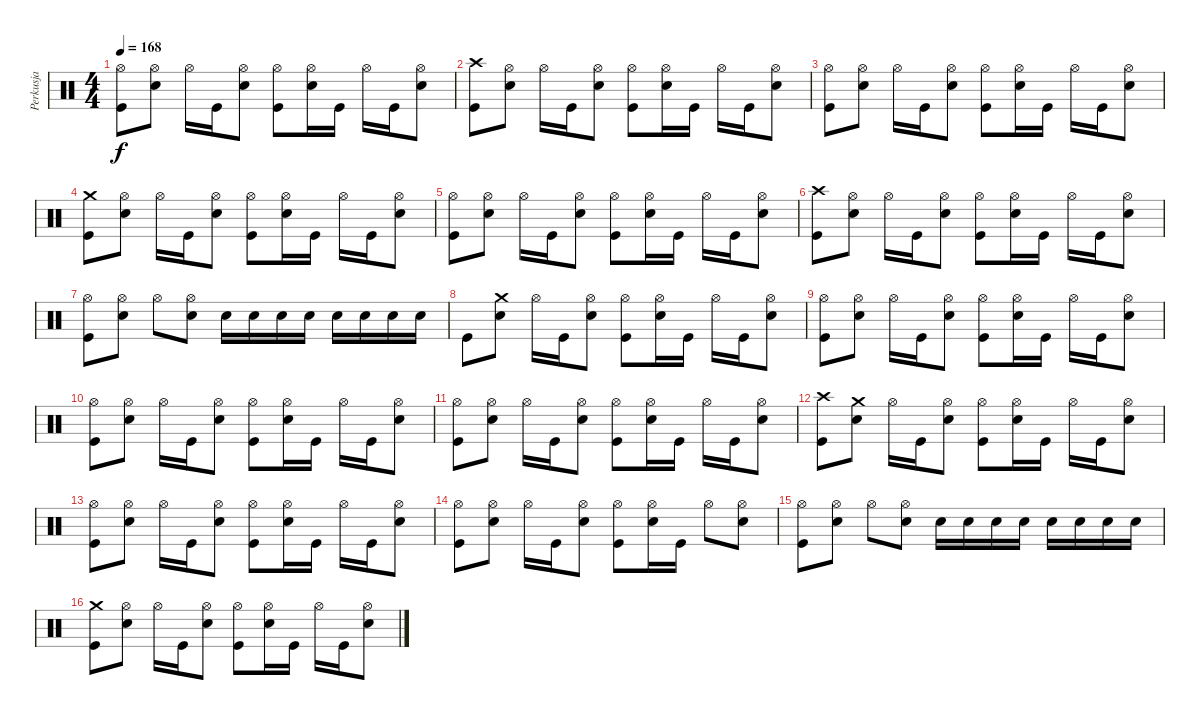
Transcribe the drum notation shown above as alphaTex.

\track ("Perkusja" "Perkusja") {instrument percussion}
\staff {score}
\articulation defaults
\ts (4 4)
\tempo 168
\clef neutral
\ks c
("Kick (hit)" "Hi-Hat (open)").8{dy f} ("Hi-Hat (open)" "Snare (hit) 2").8 "Hi-Hat (open)".16 "Kick (hit)".16 ("Hi-Hat (open)" "Snare (hit) 2").8 ("Kick (hit)" "Hi-Hat (open)").8 ("Hi-Hat (open)" "Snare (hit) 2").16 "Kick (hit)".16 "Hi-Hat (open)".16 "Kick (hit)".16 ("Hi-Hat (open)" "Snare (hit) 2").8 |
("Kick (hit)" "Crash high (hit)").8 ("Hi-Hat (open)" "Snare (hit) 2").8 "Hi-Hat (open)".16 "Kick (hit)".16 ("Hi-Hat (open)" "Snare (hit) 2").8 ("Kick (hit)" "Hi-Hat (open)").8 ("Hi-Hat (open)" "Snare (hit) 2").16 "Kick (hit)".16 "Hi-Hat (open)".16 "Kick (hit)".16 ("Hi-Hat (open)" "Snare (hit) 2").8 |
("Kick (hit)" "Hi-Hat (open)").8 ("Hi-Hat (open)" "Snare (hit) 2").8 "Hi-Hat (open)".16 "Kick (hit)".16 ("Hi-Hat (open)" "Snare (hit) 2").8 ("Kick (hit)" "Hi-Hat (open)").8 ("Hi-Hat (open)" "Snare (hit) 2").16 "Kick (hit)".16 "Hi-Hat (open)".16 "Kick (hit)".16 ("Hi-Hat (open)" "Snare (hit) 2").8 |
("Kick (hit)" "Crash medium (hit)").8 ("Hi-Hat (open)" "Snare (hit) 2").8 "Hi-Hat (open)".16 "Kick (hit)".16 ("Hi-Hat (open)" "Snare (hit) 2").8 ("Kick (hit)" "Hi-Hat (open)").8 ("Hi-Hat (open)" "Snare (hit) 2").16 "Kick (hit)".16 "Hi-Hat (open)".16 "Kick (hit)".16 ("Hi-Hat (open)" "Snare (hit) 2").8 |
("Kick (hit)" "Hi-Hat (open)").8 ("Hi-Hat (open)" "Snare (hit) 2").8 "Hi-Hat (open)".16 "Kick (hit)".16 ("Hi-Hat (open)" "Snare (hit) 2").8 ("Kick (hit)" "Hi-Hat (open)").8 ("Hi-Hat (open)" "Snare (hit) 2").16 "Kick (hit)".16 "Hi-Hat (open)".16 "Kick (hit)".16 ("Hi-Hat (open)" "Snare (hit) 2").8 |
("Kick (hit)" "Crash high (hit)").8 ("Hi-Hat (open)" "Snare (hit) 2").8 "Hi-Hat (open)".16 "Kick (hit)".16 ("Hi-Hat (open)" "Snare (hit) 2").8 ("Kick (hit)" "Hi-Hat (open)").8 ("Hi-Hat (open)" "Snare (hit) 2").16 "Kick (hit)".16 "Hi-Hat (open)".16 "Kick (hit)".16 ("Hi-Hat (open)" "Snare (hit) 2").8 |
("Kick (hit)" "Hi-Hat (open)").8 ("Hi-Hat (open)" "Snare (hit) 2").8 "Hi-Hat (open)".8 ("Hi-Hat (open)" "Snare (hit) 2").8 "Snare (hit) 2".16 "Snare (hit) 2".16 "Snare (hit) 2".16 "Snare (hit) 2".16 "Snare (hit) 2".16 "Snare (hit) 2".16 "Snare (hit) 2".16 "Snare (hit) 2".16 |
"Kick (hit)".8 ("Crash medium (hit)" "Snare (hit) 2").8 "Hi-Hat (open)".16 "Kick (hit)".16 ("Hi-Hat (open)" "Snare (hit) 2").8 ("Kick (hit)" "Hi-Hat (open)").8 ("Hi-Hat (open)" "Snare (hit) 2").16 "Kick (hit)".16 "Hi-Hat (open)".16 "Kick (hit)".16 ("Hi-Hat (open)" "Snare (hit) 2").8 |
("Kick (hit)" "Hi-Hat (open)").8 ("Hi-Hat (open)" "Snare (hit) 2").8 "Hi-Hat (open)".16 "Kick (hit)".16 ("Hi-Hat (open)" "Snare (hit) 2").8 ("Kick (hit)" "Hi-Hat (open)").8 ("Hi-Hat (open)" "Snare (hit) 2").16 "Kick (hit)".16 "Hi-Hat (open)".16 "Kick (hit)".16 ("Hi-Hat (open)" "Snare (hit) 2").8 |
("Kick (hit)" "Hi-Hat (open)").8 ("Hi-Hat (open)" "Snare (hit) 2").8 "Hi-Hat (open)".16 "Kick (hit)".16 ("Hi-Hat (open)" "Snare (hit) 2").8 ("Kick (hit)" "Hi-Hat (open)").8 ("Hi-Hat (open)" "Snare (hit) 2").16 "Kick (hit)".16 "Hi-Hat (open)".16 "Kick (hit)".16 ("Hi-Hat (open)" "Snare (hit) 2").8 |
("Kick (hit)" "Hi-Hat (open)").8 ("Hi-Hat (open)" "Snare (hit) 2").8 "Hi-Hat (open)".16 "Kick (hit)".16 ("Hi-Hat (open)" "Snare (hit) 2").8 ("Kick (hit)" "Hi-Hat (open)").8 ("Hi-Hat (open)" "Snare (hit) 2").16 "Kick (hit)".16 "Hi-Hat (open)".16 "Kick (hit)".16 ("Hi-Hat (open)" "Snare (hit) 2").8 |
("Kick (hit)" "Crash high (hit)").8 ("Crash medium (hit)" "Snare (hit) 2").8 "Hi-Hat (open)".16 "Kick (hit)".16 ("Hi-Hat (open)" "Snare (hit) 2").8 ("Kick (hit)" "Hi-Hat (open)").8 ("Hi-Hat (open)" "Snare (hit) 2").16 "Kick (hit)".16 "Hi-Hat (open)".16 "Kick (hit)".16 ("Hi-Hat (open)" "Snare (hit) 2").8 |
("Kick (hit)" "Hi-Hat (open)").8 ("Hi-Hat (open)" "Snare (hit) 2").8 "Hi-Hat (open)".16 "Kick (hit)".16 ("Hi-Hat (open)" "Snare (hit) 2").8 ("Kick (hit)" "Hi-Hat (open)").8 ("Hi-Hat (open)" "Snare (hit) 2").16 "Kick (hit)".16 "Hi-Hat (open)".16 "Kick (hit)".16 ("Hi-Hat (open)" "Snare (hit) 2").8 |
("Kick (hit)" "Hi-Hat (open)").8 ("Hi-Hat (open)" "Snare (hit) 2").8 "Hi-Hat (open)".16 "Kick (hit)".16 ("Hi-Hat (open)" "Snare (hit) 2").8 ("Kick (hit)" "Hi-Hat (open)").8 ("Hi-Hat (open)" "Snare (hit) 2").16 "Kick (hit)".16 "Hi-Hat (open)".8 ("Hi-Hat (open)" "Snare (hit) 2").8 |
("Kick (hit)" "Hi-Hat (open)").8 ("Hi-Hat (open)" "Snare (hit) 2").8 "Hi-Hat (open)".8 ("Hi-Hat (open)" "Snare (hit) 2").8 "Snare (hit) 2".16 "Snare (hit) 2".16 "Snare (hit) 2".16 "Snare (hit) 2".16 "Snare (hit) 2".16 "Snare (hit) 2".16 "Snare (hit) 2".16 "Snare (hit) 2".16 |
("Kick (hit)" "Crash medium (hit)").8 ("Hi-Hat (open)" "Snare (hit) 2").8 "Hi-Hat (open)".16 "Kick (hit)".16 ("Hi-Hat (open)" "Snare (hit) 2").8 ("Kick (hit)" "Hi-Hat (open)").8 ("Hi-Hat (open)" "Snare (hit) 2").16 "Kick (hit)".16 "Hi-Hat (open)".16 "Kick (hit)".16 ("Hi-Hat (open)" "Snare (hit) 2").8
